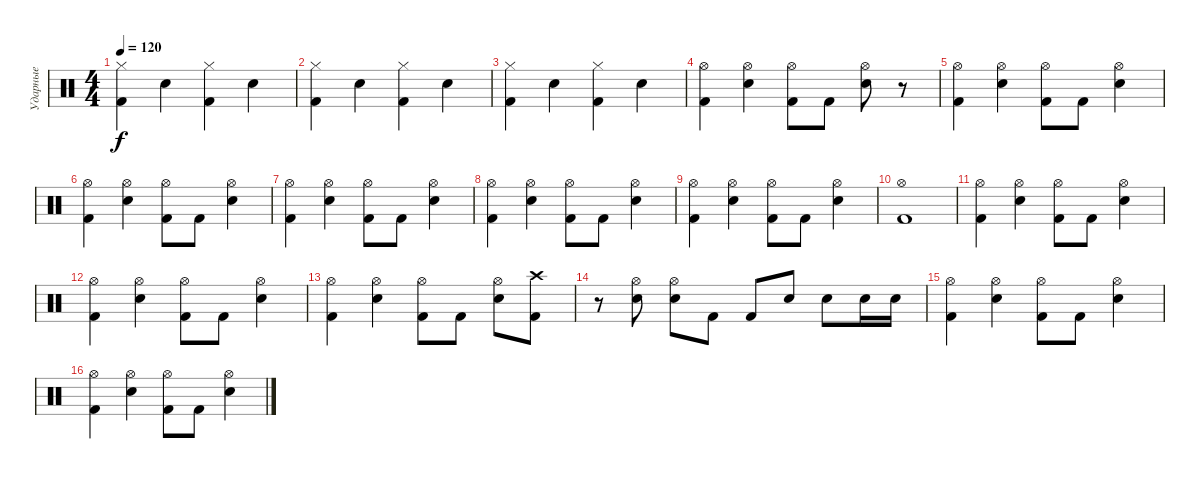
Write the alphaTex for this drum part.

\track ("Ударные" "Ударные") {instrument percussion}
\staff {score}
\articulation defaults
\ts (4 4)
\tempo 120
\clef neutral
\ks c
("Kick (hit) 2" "Hi-Hat (closed)").4{dy f} "Snare (hit) 2".4 ("Kick (hit) 2" "Hi-Hat (closed)").4 "Snare (hit) 2".4 |
("Kick (hit) 2" "Hi-Hat (closed)").4 "Snare (hit) 2".4 ("Kick (hit) 2" "Hi-Hat (closed)").4 "Snare (hit) 2".4 |
("Kick (hit) 2" "Hi-Hat (closed)").4 "Snare (hit) 2".4 ("Kick (hit) 2" "Hi-Hat (closed)").4 "Snare (hit) 2".4 |
("Kick (hit) 2" "Hi-Hat (open)").4 ("Snare (hit) 2" "Hi-Hat (open)").4 ("Kick (hit) 2" "Hi-Hat (open)").8 "Kick (hit) 2".8 ("Snare (hit) 2" "Hi-Hat (open)").8 r.8 |
("Kick (hit) 2" "Hi-Hat (open)").4 ("Snare (hit) 2" "Hi-Hat (open)").4 ("Kick (hit) 2" "Hi-Hat (open)").8 "Kick (hit) 2".8 ("Snare (hit) 2" "Hi-Hat (open)").4 |
("Kick (hit) 2" "Hi-Hat (open)").4 ("Snare (hit) 2" "Hi-Hat (open)").4 ("Kick (hit) 2" "Hi-Hat (open)").8 "Kick (hit) 2".8 ("Snare (hit) 2" "Hi-Hat (open)").4 |
("Kick (hit) 2" "Hi-Hat (open)").4 ("Snare (hit) 2" "Hi-Hat (open)").4 ("Kick (hit) 2" "Hi-Hat (open)").8 "Kick (hit) 2".8 ("Snare (hit) 2" "Hi-Hat (open)").4 |
("Kick (hit) 2" "Hi-Hat (open)").4 ("Snare (hit) 2" "Hi-Hat (open)").4 ("Kick (hit) 2" "Hi-Hat (open)").8 "Kick (hit) 2".8 ("Snare (hit) 2" "Hi-Hat (open)").4 |
("Kick (hit) 2" "Hi-Hat (open)").4 ("Snare (hit) 2" "Hi-Hat (open)").4 ("Kick (hit) 2" "Hi-Hat (open)").8 "Kick (hit) 2".8 ("Snare (hit) 2" "Hi-Hat (open)").4 |
("Kick (hit) 2" "Hi-Hat (open)").1 |
("Kick (hit) 2" "Hi-Hat (open)").4 ("Snare (hit) 2" "Hi-Hat (open)").4 ("Kick (hit) 2" "Hi-Hat (open)").8 "Kick (hit) 2".8 ("Snare (hit) 2" "Hi-Hat (open)").4 |
("Kick (hit) 2" "Hi-Hat (open)").4 ("Snare (hit) 2" "Hi-Hat (open)").4 ("Kick (hit) 2" "Hi-Hat (open)").8 "Kick (hit) 2".8 ("Snare (hit) 2" "Hi-Hat (open)").4 |
("Kick (hit) 2" "Hi-Hat (open)").4 ("Snare (hit) 2" "Hi-Hat (open)").4 ("Kick (hit) 2" "Hi-Hat (open)").8 "Kick (hit) 2".8 ("Snare (hit) 2" "Hi-Hat (open)").8 ("Kick (hit) 2" "Crash high (hit)").8 |
r.8 ("Snare (hit) 2" "Hi-Hat (open)").8 ("Snare (hit) 2" "Hi-Hat (open)").8 "Kick (hit) 2".8 "Kick (hit) 2".8 "Snare (hit) 2".8 "Snare (hit) 2".8 "Snare (hit) 2".16 "Snare (hit) 2".16 |
("Kick (hit) 2" "Hi-Hat (open)").4 ("Snare (hit) 2" "Hi-Hat (open)").4 ("Kick (hit) 2" "Hi-Hat (open)").8 "Kick (hit) 2".8 ("Snare (hit) 2" "Hi-Hat (open)").4 |
("Kick (hit) 2" "Hi-Hat (open)").4 ("Snare (hit) 2" "Hi-Hat (open)").4 ("Kick (hit) 2" "Hi-Hat (open)").8 "Kick (hit) 2".8 ("Snare (hit) 2" "Hi-Hat (open)").4
